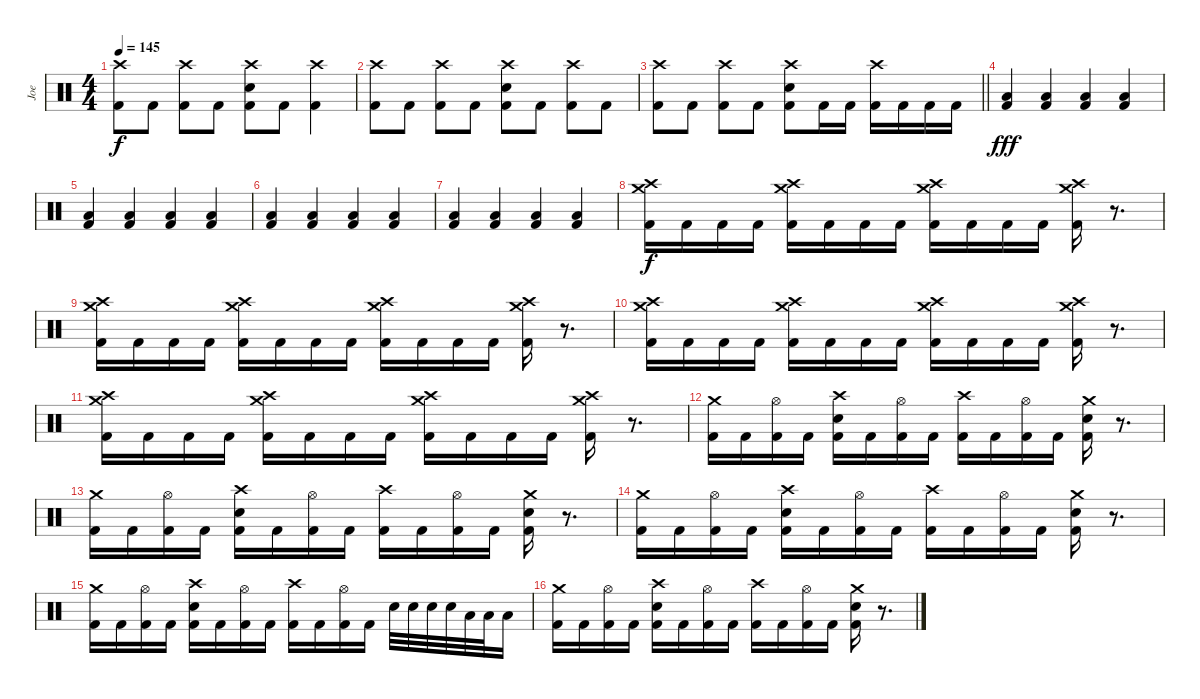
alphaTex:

\track ("Joe" "Joe") {instrument percussion}
\staff {score}
\articulation defaults
\ts (4 4)
\tempo 145
\clef neutral
\ks c
("Crash high (hit)" "Kick (hit) 2").8{dy f} "Kick (hit) 2".8 ("Crash high (hit)" "Kick (hit) 2").8 "Kick (hit) 2".8 ("Crash high (hit)" "Snare (hit) 2" "Kick (hit) 2").8 "Kick (hit) 2".8 ("Crash high (hit)" "Kick (hit) 2").4 |
("Crash high (hit)" "Kick (hit) 2").8 "Kick (hit) 2".8 ("Crash high (hit)" "Kick (hit) 2").8 "Kick (hit) 2".8 ("Crash high (hit)" "Snare (hit) 2" "Kick (hit) 2").8 "Kick (hit) 2".8 ("Crash high (hit)" "Kick (hit) 2").8 "Kick (hit) 2".8 |
\barLineRight lightlight
("Crash high (hit)" "Kick (hit) 2").8 "Kick (hit) 2".8 ("Crash high (hit)" "Kick (hit) 2").8 "Kick (hit) 2".8 ("Crash high (hit)" "Snare (hit) 2" "Kick (hit) 2").8 "Kick (hit) 2".16 "Kick (hit) 2".16 ("Crash high (hit)" "Kick (hit) 2").16 "Kick (hit) 2".16 "Kick (hit) 2".16 "Kick (hit) 2".16 |
\section ("" "")
("Low Tom (hit)" "Kick (hit) 2").4{dy fff} ("Low Tom (hit)" "Kick (hit) 2").4 ("Low Tom (hit)" "Kick (hit) 2").4 ("Low Tom (hit)" "Kick (hit) 2").4 |
("Low Tom (hit)" "Kick (hit) 2").4 ("Low Tom (hit)" "Kick (hit) 2").4 ("Low Tom (hit)" "Kick (hit) 2").4 ("Low Tom (hit)" "Kick (hit) 2").4 |
("Low Tom (hit)" "Kick (hit) 2").4 ("Low Tom (hit)" "Kick (hit) 2").4 ("Low Tom (hit)" "Kick (hit) 2").4 ("Low Tom (hit)" "Kick (hit) 2").4 |
("Low Tom (hit)" "Kick (hit) 2").4 ("Low Tom (hit)" "Kick (hit) 2").4 ("Low Tom (hit)" "Kick (hit) 2").4 ("Low Tom (hit)" "Kick (hit) 2").4 |
("Crash medium (hit)" "Crash high (hit)" "Kick (hit) 2").16{dy f} "Kick (hit) 2".16 "Kick (hit) 2".16 "Kick (hit) 2".16 ("Crash medium (hit)" "Crash high (hit)" "Kick (hit) 2").16 "Kick (hit) 2".16 "Kick (hit) 2".16 "Kick (hit) 2".16 ("Crash medium (hit)" "Crash high (hit)" "Kick (hit) 2").16 "Kick (hit) 2".16 "Kick (hit) 2".16 "Kick (hit) 2".16 ("Crash medium (hit)" "Crash high (hit)" "Kick (hit) 2").16 r.8{d} |
("Crash medium (hit)" "Crash high (hit)" "Kick (hit) 2").16 "Kick (hit) 2".16 "Kick (hit) 2".16 "Kick (hit) 2".16 ("Crash medium (hit)" "Crash high (hit)" "Kick (hit) 2").16 "Kick (hit) 2".16 "Kick (hit) 2".16 "Kick (hit) 2".16 ("Crash medium (hit)" "Crash high (hit)" "Kick (hit) 2").16 "Kick (hit) 2".16 "Kick (hit) 2".16 "Kick (hit) 2".16 ("Crash medium (hit)" "Crash high (hit)" "Kick (hit) 2").16 r.8{d} |
("Crash medium (hit)" "Crash high (hit)" "Kick (hit) 2").16 "Kick (hit) 2".16 "Kick (hit) 2".16 "Kick (hit) 2".16 ("Crash medium (hit)" "Crash high (hit)" "Kick (hit) 2").16 "Kick (hit) 2".16 "Kick (hit) 2".16 "Kick (hit) 2".16 ("Crash medium (hit)" "Crash high (hit)" "Kick (hit) 2").16 "Kick (hit) 2".16 "Kick (hit) 2".16 "Kick (hit) 2".16 ("Crash medium (hit)" "Crash high (hit)" "Kick (hit) 2").16 r.8{d} |
("Crash medium (hit)" "Crash high (hit)" "Kick (hit) 2").16 "Kick (hit) 2".16 "Kick (hit) 2".16 "Kick (hit) 2".16 ("Crash medium (hit)" "Crash high (hit)" "Kick (hit) 2").16 "Kick (hit) 2".16 "Kick (hit) 2".16 "Kick (hit) 2".16 ("Crash medium (hit)" "Crash high (hit)" "Kick (hit) 2").16 "Kick (hit) 2".16 "Kick (hit) 2".16 "Kick (hit) 2".16 ("Crash medium (hit)" "Crash high (hit)" "Kick (hit) 2").16 r.8{d} |
("Crash medium (hit)" "Kick (hit) 2").16 "Kick (hit) 2".16 ("Hi-Hat (open)" "Kick (hit) 2").16 "Kick (hit) 2".16 ("Crash high (hit)" "Snare (hit) 2" "Kick (hit) 2").16 "Kick (hit) 2".16 ("Hi-Hat (open)" "Kick (hit) 2").16 "Kick (hit) 2".16 ("Crash high (hit)" "Kick (hit) 2").16 "Kick (hit) 2".16 ("Hi-Hat (open)" "Kick (hit) 2").16 "Kick (hit) 2".16 ("Crash medium (hit)" "Snare (hit) 2" "Kick (hit) 2").16 r.8{d} |
("Crash medium (hit)" "Kick (hit) 2").16 "Kick (hit) 2".16 ("Hi-Hat (open)" "Kick (hit) 2").16 "Kick (hit) 2".16 ("Crash high (hit)" "Snare (hit) 2" "Kick (hit) 2").16 "Kick (hit) 2".16 ("Hi-Hat (open)" "Kick (hit) 2").16 "Kick (hit) 2".16 ("Crash high (hit)" "Kick (hit) 2").16 "Kick (hit) 2".16 ("Hi-Hat (open)" "Kick (hit) 2").16 "Kick (hit) 2".16 ("Crash medium (hit)" "Snare (hit) 2" "Kick (hit) 2").16 r.8{d} |
("Crash medium (hit)" "Kick (hit) 2").16 "Kick (hit) 2".16 ("Hi-Hat (open)" "Kick (hit) 2").16 "Kick (hit) 2".16 ("Crash high (hit)" "Snare (hit) 2" "Kick (hit) 2").16 "Kick (hit) 2".16 ("Hi-Hat (open)" "Kick (hit) 2").16 "Kick (hit) 2".16 ("Crash high (hit)" "Kick (hit) 2").16 "Kick (hit) 2".16 ("Hi-Hat (open)" "Kick (hit) 2").16 "Kick (hit) 2".16 ("Crash medium (hit)" "Snare (hit) 2" "Kick (hit) 2").16 r.8{d} |
("Crash medium (hit)" "Kick (hit) 2").16 "Kick (hit) 2".16 ("Hi-Hat (open)" "Kick (hit) 2").16 "Kick (hit) 2".16 ("Crash high (hit)" "Snare (hit) 2" "Kick (hit) 2").16 "Kick (hit) 2".16 ("Hi-Hat (open)" "Kick (hit) 2").16 "Kick (hit) 2".16 ("Crash high (hit)" "Kick (hit) 2").16 "Kick (hit) 2".16 ("Hi-Hat (open)" "Kick (hit) 2").16 "Kick (hit) 2".16 "Snare (hit) 2".32 "Snare (hit) 2".32 "Snare (hit) 2".32 "Snare (hit) 2".32 "Low Tom (hit)".32 "Low Tom (hit)".32 "Low Tom (hit)".16 |
("Crash medium (hit)" "Kick (hit) 2").16 "Kick (hit) 2".16 ("Hi-Hat (open)" "Kick (hit) 2").16 "Kick (hit) 2".16 ("Crash high (hit)" "Snare (hit) 2" "Kick (hit) 2").16 "Kick (hit) 2".16 ("Hi-Hat (open)" "Kick (hit) 2").16 "Kick (hit) 2".16 ("Crash high (hit)" "Kick (hit) 2").16 "Kick (hit) 2".16 ("Hi-Hat (open)" "Kick (hit) 2").16 "Kick (hit) 2".16 ("Crash medium (hit)" "Snare (hit) 2" "Kick (hit) 2").16 r.8{d}
